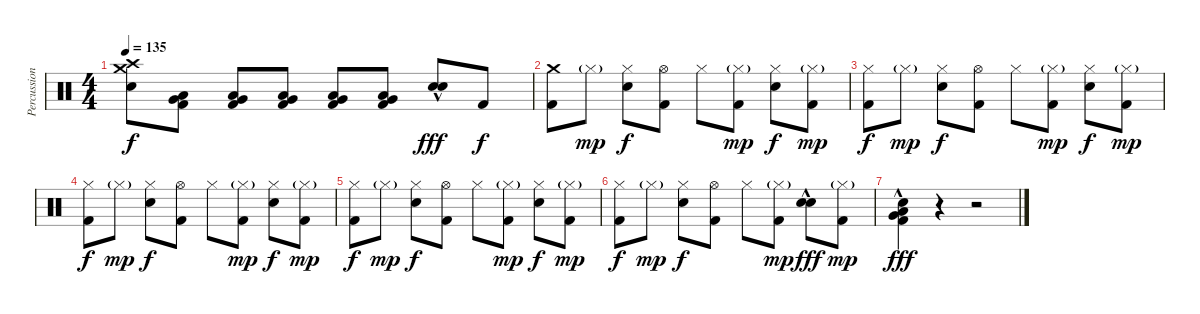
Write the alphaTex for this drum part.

\track ("Percussion 1" "Percussion") {instrument percussion}
\staff {score}
\articulation defaults
\ts (4 4)
\tempo 135
\clef neutral
\ks c
("Crash high (hit)" "Crash medium (hit)" "Electric Snare (hit)").8{dy f} ("Very Low Tom (hit)" "Low Floor Tom (hit)" "Kick (hit) 2").8 ("Very Low Tom (hit)" "Low Floor Tom (hit)" "Kick (hit) 2").8 ("Very Low Tom (hit)" "Low Floor Tom (hit)" "Kick (hit) 2").8 ("Very Low Tom (hit)" "Low Floor Tom (hit)" "Kick (hit) 2").8 ("Very Low Tom (hit)" "Low Floor Tom (hit)" "Kick (hit) 2").8 ("Electric Snare (hit)"{hac} "Electric Snare (hit)"{hac}).8{bd 120 dy fff} "Kick (hit) 2".8{dy f} |
("Crash medium (hit)" "Kick (hit) 2").8 "Hi-Hat (closed)"{g}.8{dy mp} ("Hi-Hat (closed)" "Electric Snare (hit)").8{dy f} ("Hi-Hat (open)" "Kick (hit) 2").8 "Hi-Hat (closed)".8 ("Hi-Hat (closed)"{g} "Kick (hit) 2").8{dy mp} ("Hi-Hat (closed)" "Electric Snare (hit)").8{dy f} ("Hi-Hat (closed)"{g} "Kick (hit) 2").8{dy mp} |
("Hi-Hat (closed)" "Kick (hit) 2").8{dy f} "Hi-Hat (closed)"{g}.8{dy mp} ("Hi-Hat (closed)" "Electric Snare (hit)").8{dy f} ("Hi-Hat (open)" "Kick (hit) 2").8 "Hi-Hat (closed)".8 ("Hi-Hat (closed)"{g} "Kick (hit) 2").8{dy mp} ("Hi-Hat (closed)" "Electric Snare (hit)").8{dy f} ("Hi-Hat (closed)"{g} "Kick (hit) 2").8{dy mp} |
("Hi-Hat (closed)" "Kick (hit) 2").8{dy f} "Hi-Hat (closed)"{g}.8{dy mp} ("Hi-Hat (closed)" "Electric Snare (hit)").8{dy f} ("Hi-Hat (open)" "Kick (hit) 2").8 "Hi-Hat (closed)".8 ("Hi-Hat (closed)"{g} "Kick (hit) 2").8{dy mp} ("Hi-Hat (closed)" "Electric Snare (hit)").8{dy f} ("Hi-Hat (closed)"{g} "Kick (hit) 2").8{dy mp} |
("Hi-Hat (closed)" "Kick (hit) 2").8{dy f} "Hi-Hat (closed)"{g}.8{dy mp} ("Hi-Hat (closed)" "Electric Snare (hit)").8{dy f} ("Hi-Hat (open)" "Kick (hit) 2").8 "Hi-Hat (closed)".8 ("Hi-Hat (closed)"{g} "Kick (hit) 2").8{dy mp} ("Hi-Hat (closed)" "Electric Snare (hit)").8{dy f} ("Hi-Hat (closed)"{g} "Kick (hit) 2").8{dy mp} |
("Hi-Hat (closed)" "Kick (hit) 2").8{dy f} "Hi-Hat (closed)"{g}.8{dy mp} ("Hi-Hat (closed)" "Electric Snare (hit)").8{dy f} ("Hi-Hat (open)" "Kick (hit) 2").8 "Hi-Hat (closed)".8 ("Hi-Hat (closed)"{g} "Kick (hit) 2").8{dy mp} ("Electric Snare (hit)"{hac} "Electric Snare (hit)"{hac}).8{bd 120 dy fff} ("Hi-Hat (closed)"{g} "Kick (hit) 2").8{dy mp} |
("Low Tom (hit)"{hac} "Very Low Tom (hit)"{hac} "Electric Snare (hit)"{hac} "Kick (hit) 2"{hac}).4{dy fff} r.4 r.2
